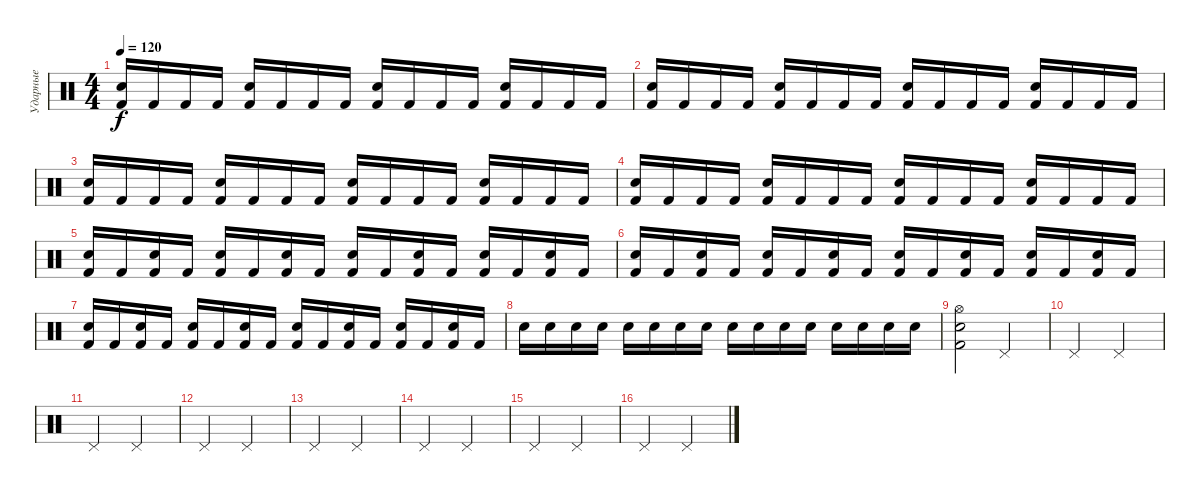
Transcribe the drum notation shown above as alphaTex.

\track ("Ударные" "Ударные") {instrument percussion}
\staff {score}
\articulation defaults
\ts (4 4)
\tempo 120
\clef neutral
\ks c
("Electric Snare (hit)" "Kick (hit) 2").16{dy f} "Kick (hit) 2".16 "Kick (hit) 2".16 "Kick (hit) 2".16 ("Electric Snare (hit)" "Kick (hit) 2").16 "Kick (hit) 2".16 "Kick (hit) 2".16 "Kick (hit) 2".16 ("Electric Snare (hit)" "Kick (hit) 2").16 "Kick (hit) 2".16 "Kick (hit) 2".16 "Kick (hit) 2".16 ("Electric Snare (hit)" "Kick (hit) 2").16 "Kick (hit) 2".16 "Kick (hit) 2".16 "Kick (hit) 2".16 |
("Electric Snare (hit)" "Kick (hit) 2").16 "Kick (hit) 2".16 "Kick (hit) 2".16 "Kick (hit) 2".16 ("Electric Snare (hit)" "Kick (hit) 2").16 "Kick (hit) 2".16 "Kick (hit) 2".16 "Kick (hit) 2".16 ("Electric Snare (hit)" "Kick (hit) 2").16 "Kick (hit) 2".16 "Kick (hit) 2".16 "Kick (hit) 2".16 ("Electric Snare (hit)" "Kick (hit) 2").16 "Kick (hit) 2".16 "Kick (hit) 2".16 "Kick (hit) 2".16 |
("Electric Snare (hit)" "Kick (hit) 2").16 "Kick (hit) 2".16 "Kick (hit) 2".16 "Kick (hit) 2".16 ("Electric Snare (hit)" "Kick (hit) 2").16 "Kick (hit) 2".16 "Kick (hit) 2".16 "Kick (hit) 2".16 ("Electric Snare (hit)" "Kick (hit) 2").16 "Kick (hit) 2".16 "Kick (hit) 2".16 "Kick (hit) 2".16 ("Electric Snare (hit)" "Kick (hit) 2").16 "Kick (hit) 2".16 "Kick (hit) 2".16 "Kick (hit) 2".16 |
("Electric Snare (hit)" "Kick (hit) 2").16 "Kick (hit) 2".16 "Kick (hit) 2".16 "Kick (hit) 2".16 ("Electric Snare (hit)" "Kick (hit) 2").16 "Kick (hit) 2".16 "Kick (hit) 2".16 "Kick (hit) 2".16 ("Electric Snare (hit)" "Kick (hit) 2").16 "Kick (hit) 2".16 "Kick (hit) 2".16 "Kick (hit) 2".16 ("Electric Snare (hit)" "Kick (hit) 2").16 "Kick (hit) 2".16 "Kick (hit) 2".16 "Kick (hit) 2".16 |
("Electric Snare (hit)" "Kick (hit) 2").16 "Kick (hit) 2".16 ("Electric Snare (hit)" "Kick (hit) 2").16 "Kick (hit) 2".16 ("Electric Snare (hit)" "Kick (hit) 2").16 "Kick (hit) 2".16 ("Electric Snare (hit)" "Kick (hit) 2").16 "Kick (hit) 2".16 ("Electric Snare (hit)" "Kick (hit) 2").16 "Kick (hit) 2".16 ("Electric Snare (hit)" "Kick (hit) 2").16 "Kick (hit) 2".16 ("Electric Snare (hit)" "Kick (hit) 2").16 "Kick (hit) 2".16 ("Electric Snare (hit)" "Kick (hit) 2").16 "Kick (hit) 2".16 |
("Electric Snare (hit)" "Kick (hit) 2").16 "Kick (hit) 2".16 ("Electric Snare (hit)" "Kick (hit) 2").16 "Kick (hit) 2".16 ("Electric Snare (hit)" "Kick (hit) 2").16 "Kick (hit) 2".16 ("Electric Snare (hit)" "Kick (hit) 2").16 "Kick (hit) 2".16 ("Electric Snare (hit)" "Kick (hit) 2").16 "Kick (hit) 2".16 ("Electric Snare (hit)" "Kick (hit) 2").16 "Kick (hit) 2".16 ("Electric Snare (hit)" "Kick (hit) 2").16 "Kick (hit) 2".16 ("Electric Snare (hit)" "Kick (hit) 2").16 "Kick (hit) 2".16 |
("Electric Snare (hit)" "Kick (hit) 2").16 "Kick (hit) 2".16 ("Electric Snare (hit)" "Kick (hit) 2").16 "Kick (hit) 2".16 ("Electric Snare (hit)" "Kick (hit) 2").16 "Kick (hit) 2".16 ("Electric Snare (hit)" "Kick (hit) 2").16 "Kick (hit) 2".16 ("Electric Snare (hit)" "Kick (hit) 2").16 "Kick (hit) 2".16 ("Electric Snare (hit)" "Kick (hit) 2").16 "Kick (hit) 2".16 ("Electric Snare (hit)" "Kick (hit) 2").16 "Kick (hit) 2".16 ("Electric Snare (hit)" "Kick (hit) 2").16 "Kick (hit) 2".16 |
"Electric Snare (hit)".16 "Electric Snare (hit)".16 "Electric Snare (hit)".16 "Electric Snare (hit)".16 "Electric Snare (hit)".16 "Electric Snare (hit)".16 "Electric Snare (hit)".16 "Electric Snare (hit)".16 "Electric Snare (hit)".16 "Electric Snare (hit)".16 "Electric Snare (hit)".16 "Electric Snare (hit)".16 "Electric Snare (hit)".16 "Electric Snare (hit)".16 "Electric Snare (hit)".16 "Electric Snare (hit)".16 |
("Electric Snare (hit)" "Hi-Hat (open)" "Kick (hit) 2").2 "Pedal Hi-Hat (hit)".2 |
"Pedal Hi-Hat (hit)".2 "Pedal Hi-Hat (hit)".2 |
"Pedal Hi-Hat (hit)".2 "Pedal Hi-Hat (hit)".2 |
"Pedal Hi-Hat (hit)".2 "Pedal Hi-Hat (hit)".2 |
"Pedal Hi-Hat (hit)".2 "Pedal Hi-Hat (hit)".2 |
"Pedal Hi-Hat (hit)".2 "Pedal Hi-Hat (hit)".2 |
"Pedal Hi-Hat (hit)".2 "Pedal Hi-Hat (hit)".2 |
"Pedal Hi-Hat (hit)".2 "Pedal Hi-Hat (hit)".2
